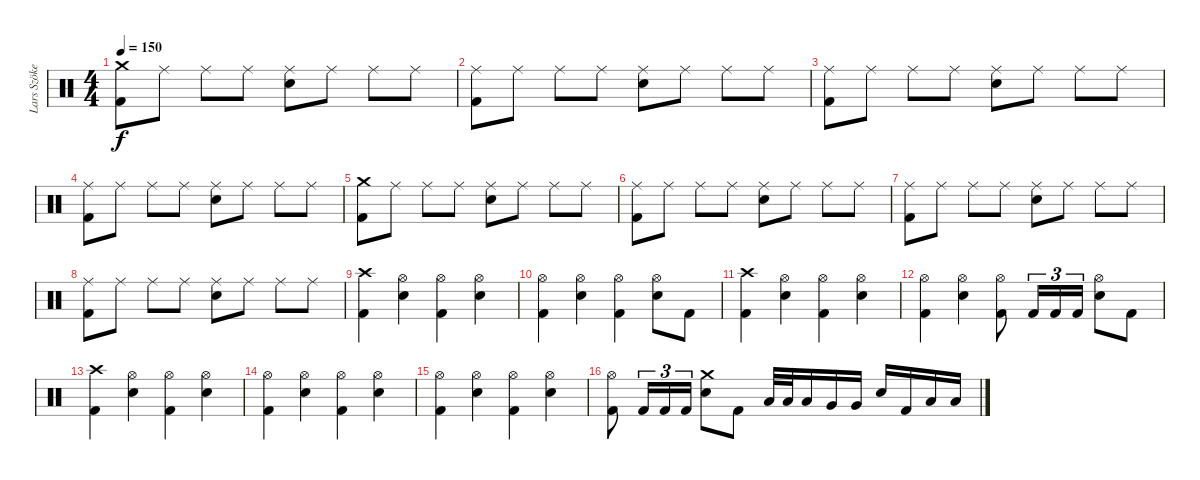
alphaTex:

\track ("Lars Szöke" "Lars Szöke") {instrument percussion}
\staff {score}
\articulation defaults
\ts (4 4)
\tempo 150
\clef neutral
\ks c
("Crash medium (hit)" "Kick (hit) 2").8{dy f} "Ride (middle)".8 "Ride (middle)".8 "Ride (middle)".8 ("Ride (middle)" "Snare (hit) 2").8 "Ride (middle)".8 "Ride (middle)".8 "Ride (middle)".8 |
("Ride (middle)" "Kick (hit) 2").8 "Ride (middle)".8 "Ride (middle)".8 "Ride (middle)".8 ("Ride (middle)" "Snare (hit) 2").8 "Ride (middle)".8 "Ride (middle)".8 "Ride (middle)".8 |
("Ride (middle)" "Kick (hit) 2").8 "Ride (middle)".8 "Ride (middle)".8 "Ride (middle)".8 ("Ride (middle)" "Snare (hit) 2").8 "Ride (middle)".8 "Ride (middle)".8 "Ride (middle)".8 |
("Ride (middle)" "Kick (hit) 2").8 "Ride (middle)".8 "Ride (middle)".8 "Ride (middle)".8 ("Ride (middle)" "Snare (hit) 2").8 "Ride (middle)".8 "Ride (middle)".8 "Ride (middle)".8 |
("Crash medium (hit)" "Kick (hit) 2").8 "Ride (middle)".8 "Ride (middle)".8 "Ride (middle)".8 ("Ride (middle)" "Snare (hit) 2").8 "Ride (middle)".8 "Ride (middle)".8 "Ride (middle)".8 |
("Ride (middle)" "Kick (hit) 2").8 "Ride (middle)".8 "Ride (middle)".8 "Ride (middle)".8 ("Ride (middle)" "Snare (hit) 2").8 "Ride (middle)".8 "Ride (middle)".8 "Ride (middle)".8 |
("Ride (middle)" "Kick (hit) 2").8 "Ride (middle)".8 "Ride (middle)".8 "Ride (middle)".8 ("Ride (middle)" "Snare (hit) 2").8 "Ride (middle)".8 "Ride (middle)".8 "Ride (middle)".8 |
("Ride (middle)" "Kick (hit) 2").8 "Ride (middle)".8 "Ride (middle)".8 "Ride (middle)".8 ("Ride (middle)" "Snare (hit) 2").8 "Ride (middle)".8 "Ride (middle)".8 "Ride (middle)".8 |
("Crash high (hit)" "Kick (hit) 2").4 ("Hi-Hat (open)" "Snare (hit) 2").4 ("Hi-Hat (open)" "Kick (hit) 2").4 ("Hi-Hat (open)" "Snare (hit) 2").4 |
("Hi-Hat (open)" "Kick (hit) 2").4 ("Hi-Hat (open)" "Snare (hit) 2").4 ("Hi-Hat (open)" "Kick (hit) 2").4 ("Hi-Hat (open)" "Snare (hit) 2").8 "Kick (hit) 2".8 |
("Crash high (hit)" "Kick (hit) 2").4 ("Hi-Hat (open)" "Snare (hit) 2").4 ("Hi-Hat (open)" "Kick (hit) 2").4 ("Hi-Hat (open)" "Snare (hit) 2").4 |
("Hi-Hat (open)" "Kick (hit) 2").4 ("Hi-Hat (open)" "Snare (hit) 2").4 ("Hi-Hat (open)" "Kick (hit) 2").8 "Kick (hit) 2".16{tu (3 2)} "Kick (hit) 2".16{tu (3 2)} "Kick (hit) 2".16{tu (3 2)} ("Hi-Hat (open)" "Snare (hit) 2").8 "Kick (hit) 2".8 |
("Crash high (hit)" "Kick (hit) 2").4 ("Hi-Hat (open)" "Snare (hit) 2").4 ("Hi-Hat (open)" "Kick (hit) 2").4 ("Hi-Hat (open)" "Snare (hit) 2").4 |
("Hi-Hat (open)" "Kick (hit) 2").4 ("Hi-Hat (open)" "Snare (hit) 2").4 ("Hi-Hat (open)" "Kick (hit) 2").4 ("Hi-Hat (open)" "Snare (hit) 2").4 |
("Hi-Hat (open)" "Kick (hit) 2").4 ("Hi-Hat (open)" "Snare (hit) 2").4 ("Hi-Hat (open)" "Kick (hit) 2").4 ("Hi-Hat (open)" "Snare (hit) 2").4 |
("Hi-Hat (open)" "Kick (hit) 2").8 "Kick (hit) 2".16{tu (3 2)} "Kick (hit) 2".16{tu (3 2)} "Kick (hit) 2".16{tu (3 2)} ("Crash medium (hit)" "Snare (hit) 2").8 "Kick (hit) 2".8 "Low Tom (hit)".32 "Low Tom (hit)".32 "Low Tom (hit)".16 "Very Low Tom (hit)".16 "Very Low Tom (hit)".16 "Snare (hit) 2".16 "Kick (hit) 2".16 "Low Floor Tom (hit)".16 "Low Floor Tom (hit)".16
